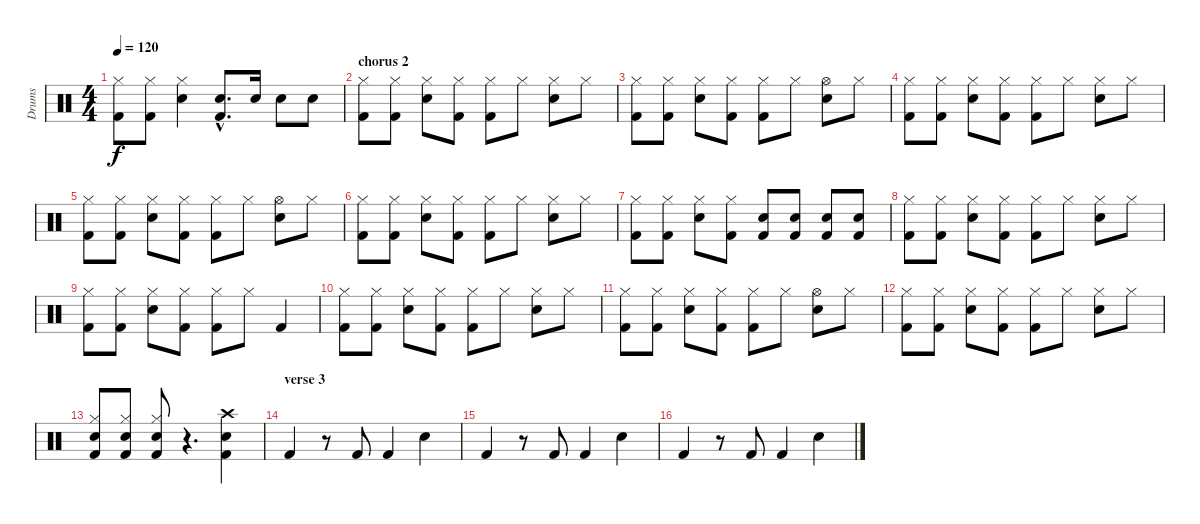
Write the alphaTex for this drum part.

\track ("Drums " "Drums ") {instrument percussion}
\staff {score}
\articulation defaults
\ts (4 4)
\tempo 120
\clef neutral
\ks c
("Kick (hit) 2" "Hi-Hat (closed)").8{dy f} ("Kick (hit) 2" "Hi-Hat (closed)").8 ("Electric Snare (hit)" "Hi-Hat (closed)").4 ("Kick (hit) 2"{hac} "Electric Snare (hit)"{hac}).8{d} "Electric Snare (hit)".16 "Electric Snare (hit)".8 "Electric Snare (hit)".8 |
\section ("" "chorus 2")
("Kick (hit) 2" "Hi-Hat (closed)").8 ("Kick (hit) 2" "Hi-Hat (closed)").8 ("Electric Snare (hit)" "Hi-Hat (closed)").8 ("Kick (hit) 2" "Hi-Hat (closed)").8 ("Kick (hit) 2" "Hi-Hat (closed)").8 "Hi-Hat (closed)".8 ("Electric Snare (hit)" "Hi-Hat (closed)").8 "Hi-Hat (closed)".8 |
("Kick (hit) 2" "Hi-Hat (closed)").8 ("Kick (hit) 2" "Hi-Hat (closed)").8 ("Electric Snare (hit)" "Hi-Hat (closed)").8 ("Kick (hit) 2" "Hi-Hat (closed)").8 ("Kick (hit) 2" "Hi-Hat (closed)").8 "Hi-Hat (closed)".8 ("Electric Snare (hit)" "Hi-Hat (open)").8 "Hi-Hat (closed)".8 |
("Kick (hit) 2" "Hi-Hat (closed)").8 ("Kick (hit) 2" "Hi-Hat (closed)").8 ("Electric Snare (hit)" "Hi-Hat (closed)").8 ("Kick (hit) 2" "Hi-Hat (closed)").8 ("Kick (hit) 2" "Hi-Hat (closed)").8 "Hi-Hat (closed)".8 ("Electric Snare (hit)" "Hi-Hat (closed)").8 "Hi-Hat (closed)".8 |
("Kick (hit) 2" "Hi-Hat (closed)").8 ("Kick (hit) 2" "Hi-Hat (closed)").8 ("Electric Snare (hit)" "Hi-Hat (closed)").8 ("Kick (hit) 2" "Hi-Hat (closed)").8 ("Kick (hit) 2" "Hi-Hat (closed)").8 "Hi-Hat (closed)".8 ("Electric Snare (hit)" "Hi-Hat (open)").8 "Hi-Hat (closed)".8 |
("Kick (hit) 2" "Hi-Hat (closed)").8 ("Kick (hit) 2" "Hi-Hat (closed)").8 ("Electric Snare (hit)" "Hi-Hat (closed)").8 ("Kick (hit) 2" "Hi-Hat (closed)").8 ("Kick (hit) 2" "Hi-Hat (closed)").8 "Hi-Hat (closed)".8 ("Electric Snare (hit)" "Hi-Hat (closed)").8 "Hi-Hat (closed)".8 |
("Hi-Hat (closed)" "Kick (hit) 2").8 ("Hi-Hat (closed)" "Kick (hit) 2").8 ("Hi-Hat (closed)" "Electric Snare (hit)").8 ("Hi-Hat (closed)" "Kick (hit) 2").8 ("Electric Snare (hit)" "Kick (hit) 2").8 ("Electric Snare (hit)" "Kick (hit) 2").8 ("Electric Snare (hit)" "Kick (hit) 2").8 ("Electric Snare (hit)" "Kick (hit) 2").8 |
("Kick (hit) 2" "Hi-Hat (closed)").8 ("Kick (hit) 2" "Hi-Hat (closed)").8 ("Electric Snare (hit)" "Hi-Hat (closed)").8 ("Kick (hit) 2" "Hi-Hat (closed)").8 ("Kick (hit) 2" "Hi-Hat (closed)").8 "Hi-Hat (closed)".8 ("Electric Snare (hit)" "Hi-Hat (closed)").8 "Hi-Hat (closed)".8 |
("Kick (hit) 2" "Hi-Hat (closed)").8 ("Kick (hit) 2" "Hi-Hat (closed)").8 ("Electric Snare (hit)" "Hi-Hat (closed)").8 ("Kick (hit) 2" "Hi-Hat (closed)").8 ("Kick (hit) 2" "Hi-Hat (closed)").8 "Hi-Hat (closed)".8 "Kick (hit) 2".4 |
("Kick (hit) 2" "Hi-Hat (closed)").8 ("Kick (hit) 2" "Hi-Hat (closed)").8 ("Electric Snare (hit)" "Hi-Hat (closed)").8 ("Kick (hit) 2" "Hi-Hat (closed)").8 ("Kick (hit) 2" "Hi-Hat (closed)").8 "Hi-Hat (closed)".8 ("Electric Snare (hit)" "Hi-Hat (closed)").8 "Hi-Hat (closed)".8 |
("Kick (hit) 2" "Hi-Hat (closed)").8 ("Kick (hit) 2" "Hi-Hat (closed)").8 ("Electric Snare (hit)" "Hi-Hat (closed)").8 ("Kick (hit) 2" "Hi-Hat (closed)").8 ("Kick (hit) 2" "Hi-Hat (closed)").8 "Hi-Hat (closed)".8 ("Electric Snare (hit)" "Hi-Hat (open)").8 "Hi-Hat (closed)".8 |
("Kick (hit) 2" "Hi-Hat (closed)").8 ("Kick (hit) 2" "Hi-Hat (closed)").8 ("Electric Snare (hit)" "Hi-Hat (closed)").8 ("Kick (hit) 2" "Hi-Hat (closed)").8 ("Kick (hit) 2" "Hi-Hat (closed)").8 "Hi-Hat (closed)".8 ("Electric Snare (hit)" "Hi-Hat (closed)").8 "Hi-Hat (closed)".8 |
("Kick (hit) 2" "Electric Snare (hit)" "Hi-Hat (closed)").8 ("Kick (hit) 2" "Electric Snare (hit)" "Hi-Hat (closed)").8 ("Kick (hit) 2" "Electric Snare (hit)" "Hi-Hat (closed)").8 r.4{d} ("Crash high (hit)" "Kick (hit) 2" "Electric Snare (hit)").4 |
\section ("" "verse 3")
"Kick (hit) 2".4 r.8 "Kick (hit) 2".8 "Kick (hit) 2".4 "Electric Snare (hit)".4 |
"Kick (hit) 2".4 r.8 "Kick (hit) 2".8 "Kick (hit) 2".4 "Electric Snare (hit)".4 |
"Kick (hit) 2".4 r.8 "Kick (hit) 2".8 "Kick (hit) 2".4 "Electric Snare (hit)".4
